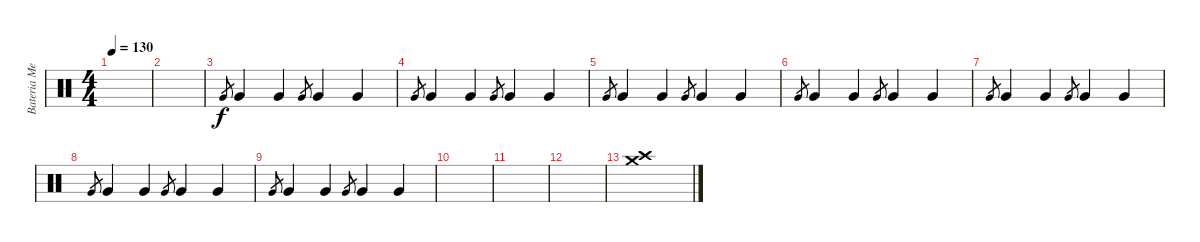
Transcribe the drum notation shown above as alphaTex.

\track ("Bateria Men" "Bateria Me") {instrument percussion}
\staff {score}
\articulation defaults
\ts (4 4)
\tempo 130
\clef neutral
\ks c
|
|
"Very Low Tom (hit)".8{gr} "Very Low Tom (hit)".4 "Very Low Tom (hit)".4 "Very Low Tom (hit)".8{gr} "Very Low Tom (hit)".4 "Very Low Tom (hit)".4 |
"Very Low Tom (hit)".8{gr} "Very Low Tom (hit)".4 "Very Low Tom (hit)".4 "Very Low Tom (hit)".8{gr} "Very Low Tom (hit)".4 "Very Low Tom (hit)".4 |
"Very Low Tom (hit)".8{gr} "Very Low Tom (hit)".4 "Very Low Tom (hit)".4 "Very Low Tom (hit)".8{gr} "Very Low Tom (hit)".4 "Very Low Tom (hit)".4 |
"Very Low Tom (hit)".8{gr} "Very Low Tom (hit)".4 "Very Low Tom (hit)".4 "Very Low Tom (hit)".8{gr} "Very Low Tom (hit)".4 "Very Low Tom (hit)".4 |
"Very Low Tom (hit)".8{gr} "Very Low Tom (hit)".4 "Very Low Tom (hit)".4 "Very Low Tom (hit)".8{gr} "Very Low Tom (hit)".4 "Very Low Tom (hit)".4 |
"Very Low Tom (hit)".8{gr} "Very Low Tom (hit)".4 "Very Low Tom (hit)".4 "Very Low Tom (hit)".8{gr} "Very Low Tom (hit)".4 "Very Low Tom (hit)".4 |
"Very Low Tom (hit)".8{gr} "Very Low Tom (hit)".4 "Very Low Tom (hit)".4 "Very Low Tom (hit)".8{gr} "Very Low Tom (hit)".4 "Very Low Tom (hit)".4 |
|
|
|
("Crash medium (hit)" "Crash high (hit)").1
